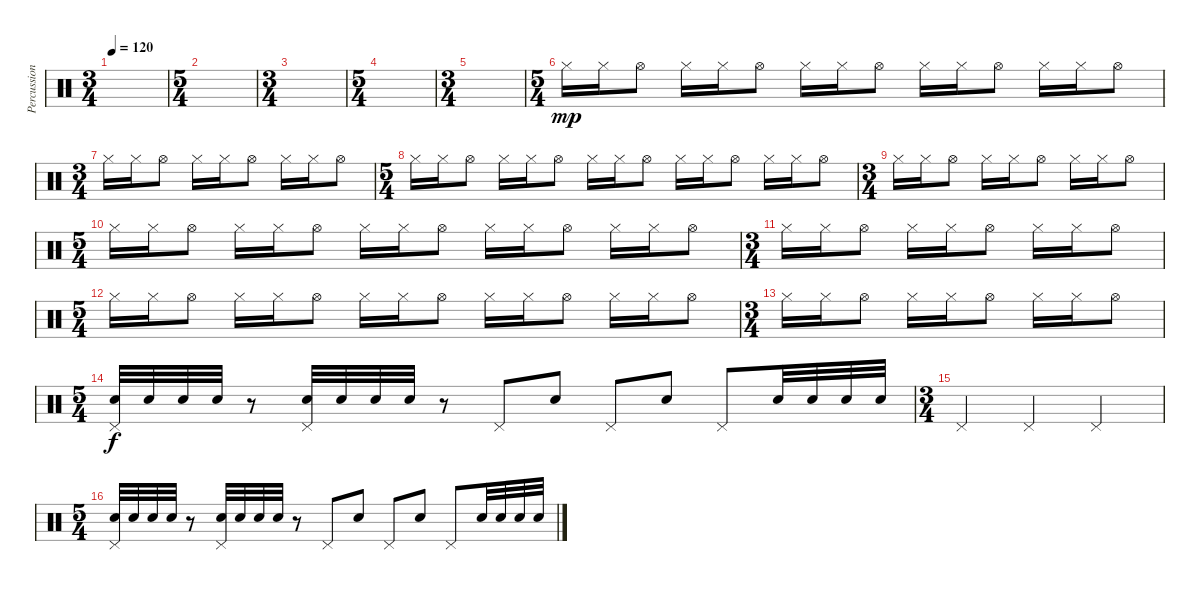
\track ("Percussion" "Percussion") {instrument percussion}
\staff {score}
\articulation defaults
\ts (3 4)
\tempo 120
\clef neutral
\ks c
|
\ts (5 4)
|
\ts (3 4)
|
\ts (5 4)
|
\ts (3 4)
|
\ts (5 4)
"Hi-Hat (closed)".16{dy mp} "Hi-Hat (closed)".16 "Hi-Hat (open)".8 "Hi-Hat (closed)".16 "Hi-Hat (closed)".16 "Hi-Hat (open)".8 "Hi-Hat (closed)".16 "Hi-Hat (closed)".16 "Hi-Hat (open)".8 "Hi-Hat (closed)".16 "Hi-Hat (closed)".16 "Hi-Hat (open)".8 "Hi-Hat (closed)".16 "Hi-Hat (closed)".16 "Hi-Hat (open)".8 |
\ts (3 4)
"Hi-Hat (closed)".16 "Hi-Hat (closed)".16 "Hi-Hat (open)".8 "Hi-Hat (closed)".16 "Hi-Hat (closed)".16 "Hi-Hat (open)".8 "Hi-Hat (closed)".16 "Hi-Hat (closed)".16 "Hi-Hat (open)".8 |
\ts (5 4)
"Hi-Hat (closed)".16 "Hi-Hat (closed)".16 "Hi-Hat (open)".8 "Hi-Hat (closed)".16 "Hi-Hat (closed)".16 "Hi-Hat (open)".8 "Hi-Hat (closed)".16 "Hi-Hat (closed)".16 "Hi-Hat (open)".8 "Hi-Hat (closed)".16 "Hi-Hat (closed)".16 "Hi-Hat (open)".8 "Hi-Hat (closed)".16 "Hi-Hat (closed)".16 "Hi-Hat (open)".8 |
\ts (3 4)
"Hi-Hat (closed)".16 "Hi-Hat (closed)".16 "Hi-Hat (open)".8 "Hi-Hat (closed)".16 "Hi-Hat (closed)".16 "Hi-Hat (open)".8 "Hi-Hat (closed)".16 "Hi-Hat (closed)".16 "Hi-Hat (open)".8 |
\ts (5 4)
"Hi-Hat (closed)".16 "Hi-Hat (closed)".16 "Hi-Hat (open)".8 "Hi-Hat (closed)".16 "Hi-Hat (closed)".16 "Hi-Hat (open)".8 "Hi-Hat (closed)".16 "Hi-Hat (closed)".16 "Hi-Hat (open)".8 "Hi-Hat (closed)".16 "Hi-Hat (closed)".16 "Hi-Hat (open)".8 "Hi-Hat (closed)".16 "Hi-Hat (closed)".16 "Hi-Hat (open)".8 |
\ts (3 4)
"Hi-Hat (closed)".16 "Hi-Hat (closed)".16 "Hi-Hat (open)".8 "Hi-Hat (closed)".16 "Hi-Hat (closed)".16 "Hi-Hat (open)".8 "Hi-Hat (closed)".16 "Hi-Hat (closed)".16 "Hi-Hat (open)".8 |
\ts (5 4)
"Hi-Hat (closed)".16 "Hi-Hat (closed)".16 "Hi-Hat (open)".8 "Hi-Hat (closed)".16 "Hi-Hat (closed)".16 "Hi-Hat (open)".8 "Hi-Hat (closed)".16 "Hi-Hat (closed)".16 "Hi-Hat (open)".8 "Hi-Hat (closed)".16 "Hi-Hat (closed)".16 "Hi-Hat (open)".8 "Hi-Hat (closed)".16 "Hi-Hat (closed)".16 "Hi-Hat (open)".8 |
\ts (3 4)
"Hi-Hat (closed)".16 "Hi-Hat (closed)".16 "Hi-Hat (open)".8 "Hi-Hat (closed)".16 "Hi-Hat (closed)".16 "Hi-Hat (open)".8 "Hi-Hat (closed)".16 "Hi-Hat (closed)".16 "Hi-Hat (open)".8 |
\ts (5 4)
("Electric Snare (hit)" "Pedal Hi-Hat (hit)").32{dy f} "Electric Snare (hit)".32 "Electric Snare (hit)".32 "Electric Snare (hit)".32 r.8 ("Electric Snare (hit)" "Pedal Hi-Hat (hit)").32 "Electric Snare (hit)".32 "Electric Snare (hit)".32 "Electric Snare (hit)".32 r.8 "Pedal Hi-Hat (hit)".8 "Electric Snare (hit)".8 "Pedal Hi-Hat (hit)".8 "Electric Snare (hit)".8 "Pedal Hi-Hat (hit)".8 "Electric Snare (hit)".32 "Electric Snare (hit)".32 "Electric Snare (hit)".32 "Electric Snare (hit)".32 |
\ts (3 4)
"Pedal Hi-Hat (hit)".4 "Pedal Hi-Hat (hit)".4 "Pedal Hi-Hat (hit)".4 |
\ts (5 4)
("Electric Snare (hit)" "Pedal Hi-Hat (hit)").32 "Electric Snare (hit)".32 "Electric Snare (hit)".32 "Electric Snare (hit)".32 r.8 ("Electric Snare (hit)" "Pedal Hi-Hat (hit)").32 "Electric Snare (hit)".32 "Electric Snare (hit)".32 "Electric Snare (hit)".32 r.8 "Pedal Hi-Hat (hit)".8 "Electric Snare (hit)".8 "Pedal Hi-Hat (hit)".8 "Electric Snare (hit)".8 "Pedal Hi-Hat (hit)".8 "Electric Snare (hit)".32 "Electric Snare (hit)".32 "Electric Snare (hit)".32 "Electric Snare (hit)".32
